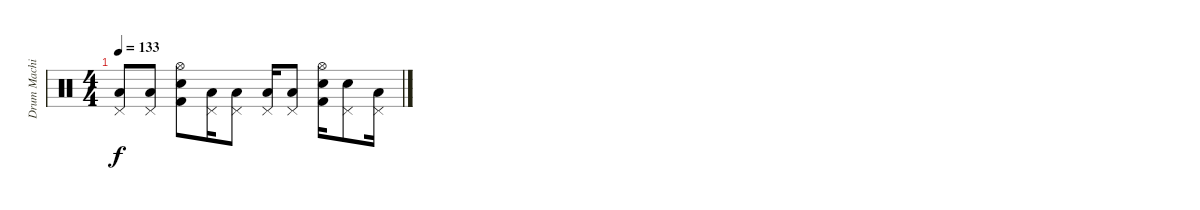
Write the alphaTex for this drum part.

\track ("Drum Machine" "Drum Machi") {instrument percussion}
\staff {score}
\articulation defaults
\ts (4 4)
\tempo 133
\clef neutral
\ks c
("Pedal Hi-Hat (hit)" "Low Tom (hit)").8{dy f} ("Pedal Hi-Hat (hit)" "Low Tom (hit)").8 ("Hi-Hat (open)" "Snare (hit) 2" "Kick (hit) 2").8 ("Pedal Hi-Hat (hit)" "Low Tom (hit)").16 ("Pedal Hi-Hat (hit)" "Low Tom (hit)").8 ("Pedal Hi-Hat (hit)" "Low Tom (hit)").16 ("Pedal Hi-Hat (hit)" "Low Tom (hit)").8 ("Hi-Hat (open)" "Snare (hit) 2" "Kick (hit) 2").16 ("Pedal Hi-Hat (hit)" "Snare (hit) 2").8 ("Pedal Hi-Hat (hit)" "Low Tom (hit)").16
